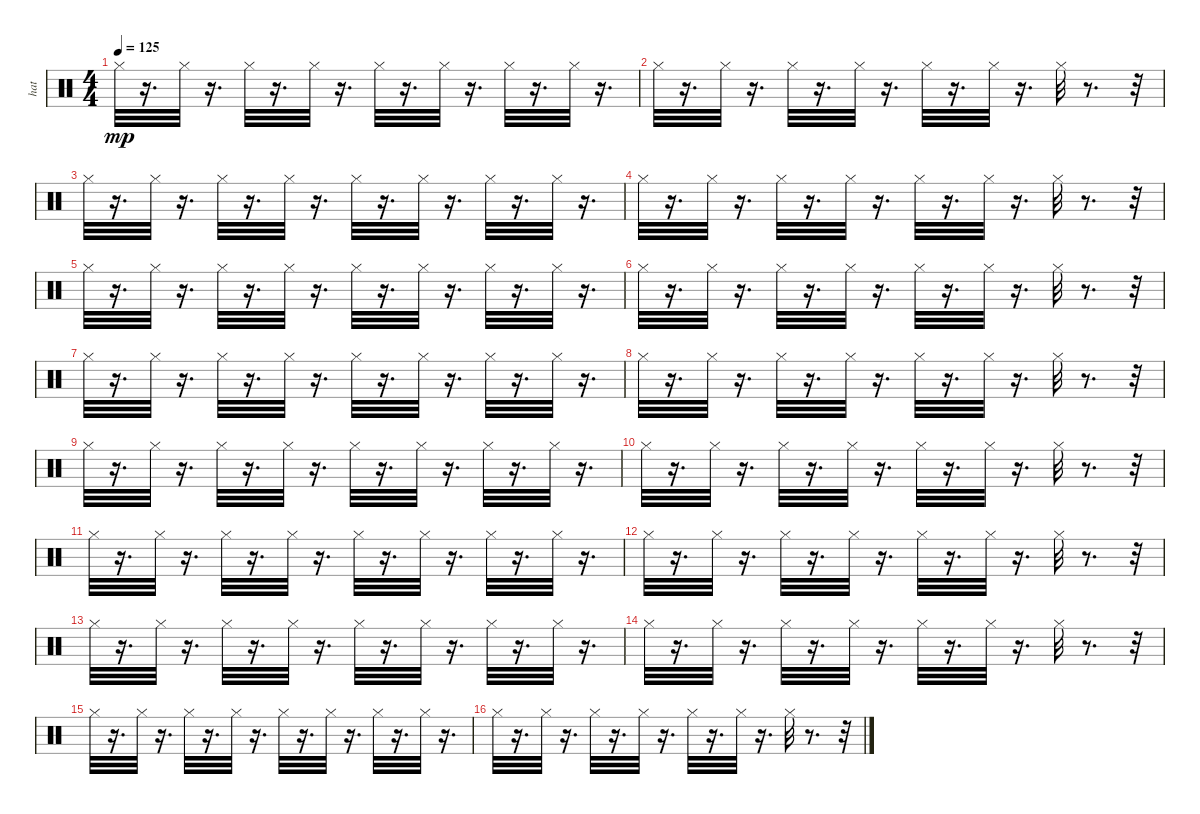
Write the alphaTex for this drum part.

\track ("hat" "hat") {instrument percussion}
\staff {score}
\articulation defaults
\ts (4 4)
\tempo 125
\clef neutral
\ks c "Hi-Hat (closed)".32{dy mp}
r.16{d} "Hi-Hat (closed)".32 r.16{d} "Hi-Hat (closed)".32 r.16{d} "Hi-Hat (closed)".32 r.16{d} "Hi-Hat (closed)".32 r.16{d} "Hi-Hat (closed)".32 r.16{d} "Hi-Hat (closed)".32 r.16{d} "Hi-Hat (closed)".32 r.16{d} |
"Hi-Hat (closed)".32 r.16{d} "Hi-Hat (closed)".32 r.16{d} "Hi-Hat (closed)".32 r.16{d} "Hi-Hat (closed)".32 r.16{d} "Hi-Hat (closed)".32 r.16{d} "Hi-Hat (closed)".32 r.16{d} "Hi-Hat (closed)".32 r.8{d} r.32 |
"Hi-Hat (closed)".32 r.16{d} "Hi-Hat (closed)".32 r.16{d} "Hi-Hat (closed)".32 r.16{d} "Hi-Hat (closed)".32 r.16{d} "Hi-Hat (closed)".32 r.16{d} "Hi-Hat (closed)".32 r.16{d} "Hi-Hat (closed)".32 r.16{d} "Hi-Hat (closed)".32 r.16{d} |
"Hi-Hat (closed)".32 r.16{d} "Hi-Hat (closed)".32 r.16{d} "Hi-Hat (closed)".32 r.16{d} "Hi-Hat (closed)".32 r.16{d} "Hi-Hat (closed)".32 r.16{d} "Hi-Hat (closed)".32 r.16{d} "Hi-Hat (closed)".32 r.8{d} r.32 |
"Hi-Hat (closed)".32 r.16{d} "Hi-Hat (closed)".32 r.16{d} "Hi-Hat (closed)".32 r.16{d} "Hi-Hat (closed)".32 r.16{d} "Hi-Hat (closed)".32 r.16{d} "Hi-Hat (closed)".32 r.16{d} "Hi-Hat (closed)".32 r.16{d} "Hi-Hat (closed)".32 r.16{d} |
"Hi-Hat (closed)".32 r.16{d} "Hi-Hat (closed)".32 r.16{d} "Hi-Hat (closed)".32 r.16{d} "Hi-Hat (closed)".32 r.16{d} "Hi-Hat (closed)".32 r.16{d} "Hi-Hat (closed)".32 r.16{d} "Hi-Hat (closed)".32 r.8{d} r.32 |
"Hi-Hat (closed)".32 r.16{d} "Hi-Hat (closed)".32 r.16{d} "Hi-Hat (closed)".32 r.16{d} "Hi-Hat (closed)".32 r.16{d} "Hi-Hat (closed)".32 r.16{d} "Hi-Hat (closed)".32 r.16{d} "Hi-Hat (closed)".32 r.16{d} "Hi-Hat (closed)".32 r.16{d} |
"Hi-Hat (closed)".32 r.16{d} "Hi-Hat (closed)".32 r.16{d} "Hi-Hat (closed)".32 r.16{d} "Hi-Hat (closed)".32 r.16{d} "Hi-Hat (closed)".32 r.16{d} "Hi-Hat (closed)".32 r.16{d} "Hi-Hat (closed)".32 r.8{d} r.32 |
"Hi-Hat (closed)".32 r.16{d} "Hi-Hat (closed)".32 r.16{d} "Hi-Hat (closed)".32 r.16{d} "Hi-Hat (closed)".32 r.16{d} "Hi-Hat (closed)".32 r.16{d} "Hi-Hat (closed)".32 r.16{d} "Hi-Hat (closed)".32 r.16{d} "Hi-Hat (closed)".32 r.16{d} |
"Hi-Hat (closed)".32 r.16{d} "Hi-Hat (closed)".32 r.16{d} "Hi-Hat (closed)".32 r.16{d} "Hi-Hat (closed)".32 r.16{d} "Hi-Hat (closed)".32 r.16{d} "Hi-Hat (closed)".32 r.16{d} "Hi-Hat (closed)".32 r.8{d} r.32 |
"Hi-Hat (closed)".32 r.16{d} "Hi-Hat (closed)".32 r.16{d} "Hi-Hat (closed)".32 r.16{d} "Hi-Hat (closed)".32 r.16{d} "Hi-Hat (closed)".32 r.16{d} "Hi-Hat (closed)".32 r.16{d} "Hi-Hat (closed)".32 r.16{d} "Hi-Hat (closed)".32 r.16{d} |
"Hi-Hat (closed)".32 r.16{d} "Hi-Hat (closed)".32 r.16{d} "Hi-Hat (closed)".32 r.16{d} "Hi-Hat (closed)".32 r.16{d} "Hi-Hat (closed)".32 r.16{d} "Hi-Hat (closed)".32 r.16{d} "Hi-Hat (closed)".32 r.8{d} r.32 |
"Hi-Hat (closed)".32 r.16{d} "Hi-Hat (closed)".32 r.16{d} "Hi-Hat (closed)".32 r.16{d} "Hi-Hat (closed)".32 r.16{d} "Hi-Hat (closed)".32 r.16{d} "Hi-Hat (closed)".32 r.16{d} "Hi-Hat (closed)".32 r.16{d} "Hi-Hat (closed)".32 r.16{d} |
"Hi-Hat (closed)".32 r.16{d} "Hi-Hat (closed)".32 r.16{d} "Hi-Hat (closed)".32 r.16{d} "Hi-Hat (closed)".32 r.16{d} "Hi-Hat (closed)".32 r.16{d} "Hi-Hat (closed)".32 r.16{d} "Hi-Hat (closed)".32 r.8{d} r.32 |
"Hi-Hat (closed)".32 r.16{d} "Hi-Hat (closed)".32 r.16{d} "Hi-Hat (closed)".32 r.16{d} "Hi-Hat (closed)".32 r.16{d} "Hi-Hat (closed)".32 r.16{d} "Hi-Hat (closed)".32 r.16{d} "Hi-Hat (closed)".32 r.16{d} "Hi-Hat (closed)".32 r.16{d} |
"Hi-Hat (closed)".32 r.16{d} "Hi-Hat (closed)".32 r.16{d} "Hi-Hat (closed)".32 r.16{d} "Hi-Hat (closed)".32 r.16{d} "Hi-Hat (closed)".32 r.16{d} "Hi-Hat (closed)".32 r.16{d} "Hi-Hat (closed)".32 r.8{d} r.32
